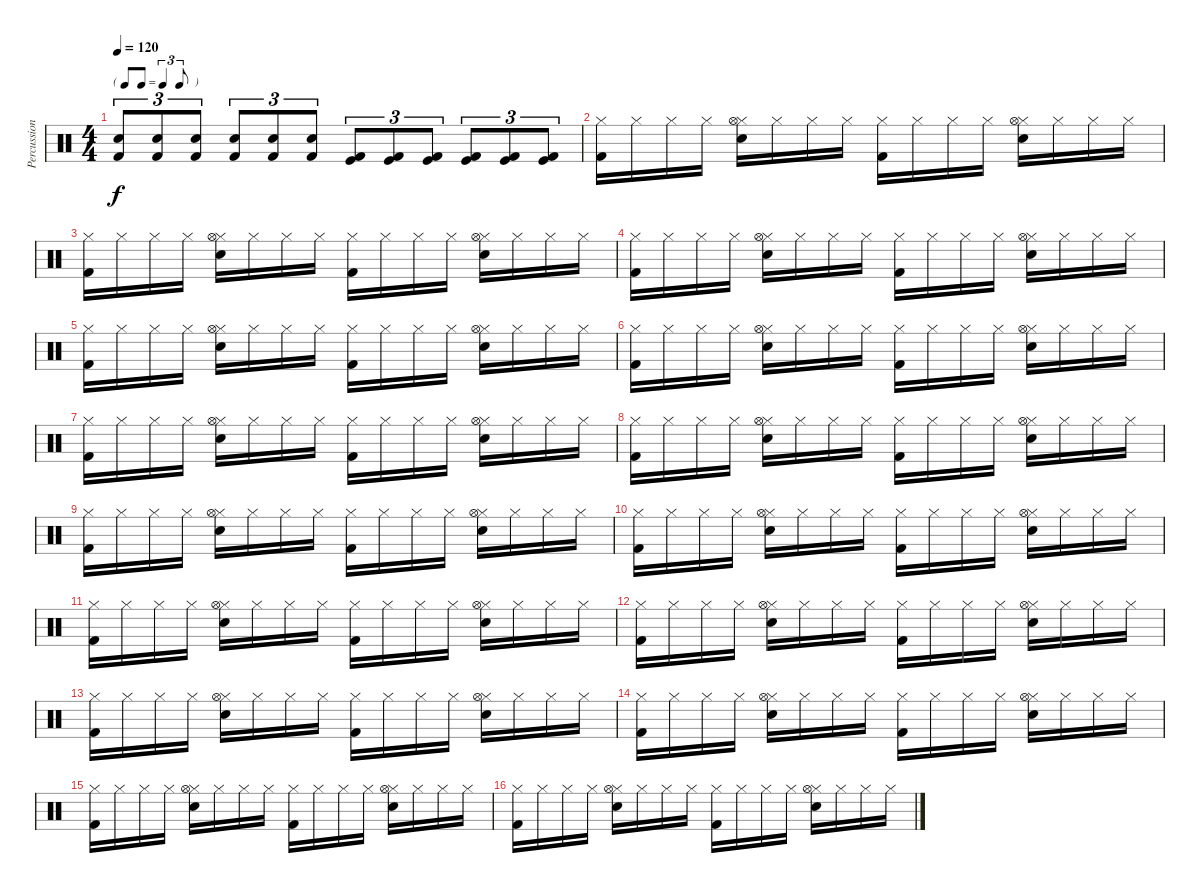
\track ("Percussions" "Percussion") {instrument percussion}
\staff {score}
\articulation defaults
\ts (4 4)
\tf triplet8th
\tempo 120
\clef neutral
\ks c
("Kick (hit) 2" "Electric Snare (hit)").8{tu (3 2) dy f} ("Kick (hit) 2" "Electric Snare (hit)").8{tu (3 2)} ("Kick (hit) 2" "Electric Snare (hit)").8{tu (3 2)} ("Kick (hit) 2" "Electric Snare (hit)").8{tu (3 2)} ("Kick (hit) 2" "Electric Snare (hit)").8{tu (3 2)} ("Kick (hit) 2" "Electric Snare (hit)").8{tu (3 2)} ("Kick (hit)" "Kick (hit) 2").8{tu (3 2)} ("Kick (hit)" "Kick (hit) 2").8{tu (3 2)} ("Kick (hit)" "Kick (hit) 2").8{tu (3 2)} ("Kick (hit)" "Kick (hit) 2").8{tu (3 2)} ("Kick (hit)" "Kick (hit) 2").8{tu (3 2)} ("Kick (hit)" "Kick (hit) 2").8{tu (3 2)} |
("Hi-Hat (closed)" "Kick (hit) 2").16 "Hi-Hat (closed)".16 "Hi-Hat (closed)".16 "Hi-Hat (closed)".16 ("Snare (hit) 2" "Hi-Hat (closed)" "Hi-Hat (open)").16 "Hi-Hat (closed)".16 "Hi-Hat (closed)".16 "Hi-Hat (closed)".16 ("Hi-Hat (closed)" "Kick (hit) 2").16 "Hi-Hat (closed)".16 "Hi-Hat (closed)".16 "Hi-Hat (closed)".16 ("Snare (hit) 2" "Hi-Hat (closed)" "Hi-Hat (open)").16 "Hi-Hat (closed)".16 "Hi-Hat (closed)".16 "Hi-Hat (closed)".16 |
("Hi-Hat (closed)" "Kick (hit) 2").16 "Hi-Hat (closed)".16 "Hi-Hat (closed)".16 "Hi-Hat (closed)".16 ("Snare (hit) 2" "Hi-Hat (closed)" "Hi-Hat (open)").16 "Hi-Hat (closed)".16 "Hi-Hat (closed)".16 "Hi-Hat (closed)".16 ("Hi-Hat (closed)" "Kick (hit) 2").16 "Hi-Hat (closed)".16 "Hi-Hat (closed)".16 "Hi-Hat (closed)".16 ("Snare (hit) 2" "Hi-Hat (closed)" "Hi-Hat (open)").16 "Hi-Hat (closed)".16 "Hi-Hat (closed)".16 "Hi-Hat (closed)".16 |
("Hi-Hat (closed)" "Kick (hit) 2").16 "Hi-Hat (closed)".16 "Hi-Hat (closed)".16 "Hi-Hat (closed)".16 ("Snare (hit) 2" "Hi-Hat (closed)" "Hi-Hat (open)").16 "Hi-Hat (closed)".16 "Hi-Hat (closed)".16 "Hi-Hat (closed)".16 ("Hi-Hat (closed)" "Kick (hit) 2").16 "Hi-Hat (closed)".16 "Hi-Hat (closed)".16 "Hi-Hat (closed)".16 ("Snare (hit) 2" "Hi-Hat (closed)" "Hi-Hat (open)").16 "Hi-Hat (closed)".16 "Hi-Hat (closed)".16 "Hi-Hat (closed)".16 |
("Hi-Hat (closed)" "Kick (hit) 2").16 "Hi-Hat (closed)".16 "Hi-Hat (closed)".16 "Hi-Hat (closed)".16 ("Snare (hit) 2" "Hi-Hat (closed)" "Hi-Hat (open)").16 "Hi-Hat (closed)".16 "Hi-Hat (closed)".16 "Hi-Hat (closed)".16 ("Hi-Hat (closed)" "Kick (hit) 2").16 "Hi-Hat (closed)".16 "Hi-Hat (closed)".16 "Hi-Hat (closed)".16 ("Snare (hit) 2" "Hi-Hat (closed)" "Hi-Hat (open)").16 "Hi-Hat (closed)".16 "Hi-Hat (closed)".16 "Hi-Hat (closed)".16 |
("Hi-Hat (closed)" "Kick (hit) 2").16 "Hi-Hat (closed)".16 "Hi-Hat (closed)".16 "Hi-Hat (closed)".16 ("Snare (hit) 2" "Hi-Hat (closed)" "Hi-Hat (open)").16 "Hi-Hat (closed)".16 "Hi-Hat (closed)".16 "Hi-Hat (closed)".16 ("Hi-Hat (closed)" "Kick (hit) 2").16 "Hi-Hat (closed)".16 "Hi-Hat (closed)".16 "Hi-Hat (closed)".16 ("Snare (hit) 2" "Hi-Hat (closed)" "Hi-Hat (open)").16 "Hi-Hat (closed)".16 "Hi-Hat (closed)".16 "Hi-Hat (closed)".16 |
("Hi-Hat (closed)" "Kick (hit) 2").16 "Hi-Hat (closed)".16 "Hi-Hat (closed)".16 "Hi-Hat (closed)".16 ("Snare (hit) 2" "Hi-Hat (closed)" "Hi-Hat (open)").16 "Hi-Hat (closed)".16 "Hi-Hat (closed)".16 "Hi-Hat (closed)".16 ("Hi-Hat (closed)" "Kick (hit) 2").16 "Hi-Hat (closed)".16 "Hi-Hat (closed)".16 "Hi-Hat (closed)".16 ("Snare (hit) 2" "Hi-Hat (closed)" "Hi-Hat (open)").16 "Hi-Hat (closed)".16 "Hi-Hat (closed)".16 "Hi-Hat (closed)".16 |
("Hi-Hat (closed)" "Kick (hit) 2").16 "Hi-Hat (closed)".16 "Hi-Hat (closed)".16 "Hi-Hat (closed)".16 ("Snare (hit) 2" "Hi-Hat (closed)" "Hi-Hat (open)").16 "Hi-Hat (closed)".16 "Hi-Hat (closed)".16 "Hi-Hat (closed)".16 ("Hi-Hat (closed)" "Kick (hit) 2").16 "Hi-Hat (closed)".16 "Hi-Hat (closed)".16 "Hi-Hat (closed)".16 ("Snare (hit) 2" "Hi-Hat (closed)" "Hi-Hat (open)").16 "Hi-Hat (closed)".16 "Hi-Hat (closed)".16 "Hi-Hat (closed)".16 |
("Hi-Hat (closed)" "Kick (hit) 2").16 "Hi-Hat (closed)".16 "Hi-Hat (closed)".16 "Hi-Hat (closed)".16 ("Snare (hit) 2" "Hi-Hat (closed)" "Hi-Hat (open)").16 "Hi-Hat (closed)".16 "Hi-Hat (closed)".16 "Hi-Hat (closed)".16 ("Hi-Hat (closed)" "Kick (hit) 2").16 "Hi-Hat (closed)".16 "Hi-Hat (closed)".16 "Hi-Hat (closed)".16 ("Snare (hit) 2" "Hi-Hat (closed)" "Hi-Hat (open)").16 "Hi-Hat (closed)".16 "Hi-Hat (closed)".16 "Hi-Hat (closed)".16 |
("Hi-Hat (closed)" "Kick (hit) 2").16 "Hi-Hat (closed)".16 "Hi-Hat (closed)".16 "Hi-Hat (closed)".16 ("Snare (hit) 2" "Hi-Hat (closed)" "Hi-Hat (open)").16 "Hi-Hat (closed)".16 "Hi-Hat (closed)".16 "Hi-Hat (closed)".16 ("Hi-Hat (closed)" "Kick (hit) 2").16 "Hi-Hat (closed)".16 "Hi-Hat (closed)".16 "Hi-Hat (closed)".16 ("Snare (hit) 2" "Hi-Hat (closed)" "Hi-Hat (open)").16 "Hi-Hat (closed)".16 "Hi-Hat (closed)".16 "Hi-Hat (closed)".16 |
("Hi-Hat (closed)" "Kick (hit) 2").16 "Hi-Hat (closed)".16 "Hi-Hat (closed)".16 "Hi-Hat (closed)".16 ("Snare (hit) 2" "Hi-Hat (closed)" "Hi-Hat (open)").16 "Hi-Hat (closed)".16 "Hi-Hat (closed)".16 "Hi-Hat (closed)".16 ("Hi-Hat (closed)" "Kick (hit) 2").16 "Hi-Hat (closed)".16 "Hi-Hat (closed)".16 "Hi-Hat (closed)".16 ("Snare (hit) 2" "Hi-Hat (closed)" "Hi-Hat (open)").16 "Hi-Hat (closed)".16 "Hi-Hat (closed)".16 "Hi-Hat (closed)".16 |
("Hi-Hat (closed)" "Kick (hit) 2").16 "Hi-Hat (closed)".16 "Hi-Hat (closed)".16 "Hi-Hat (closed)".16 ("Snare (hit) 2" "Hi-Hat (closed)" "Hi-Hat (open)").16 "Hi-Hat (closed)".16 "Hi-Hat (closed)".16 "Hi-Hat (closed)".16 ("Hi-Hat (closed)" "Kick (hit) 2").16 "Hi-Hat (closed)".16 "Hi-Hat (closed)".16 "Hi-Hat (closed)".16 ("Snare (hit) 2" "Hi-Hat (closed)" "Hi-Hat (open)").16 "Hi-Hat (closed)".16 "Hi-Hat (closed)".16 "Hi-Hat (closed)".16 |
("Hi-Hat (closed)" "Kick (hit) 2").16 "Hi-Hat (closed)".16 "Hi-Hat (closed)".16 "Hi-Hat (closed)".16 ("Snare (hit) 2" "Hi-Hat (closed)" "Hi-Hat (open)").16 "Hi-Hat (closed)".16 "Hi-Hat (closed)".16 "Hi-Hat (closed)".16 ("Hi-Hat (closed)" "Kick (hit) 2").16 "Hi-Hat (closed)".16 "Hi-Hat (closed)".16 "Hi-Hat (closed)".16 ("Snare (hit) 2" "Hi-Hat (closed)" "Hi-Hat (open)").16 "Hi-Hat (closed)".16 "Hi-Hat (closed)".16 "Hi-Hat (closed)".16 |
("Hi-Hat (closed)" "Kick (hit) 2").16 "Hi-Hat (closed)".16 "Hi-Hat (closed)".16 "Hi-Hat (closed)".16 ("Snare (hit) 2" "Hi-Hat (closed)" "Hi-Hat (open)").16 "Hi-Hat (closed)".16 "Hi-Hat (closed)".16 "Hi-Hat (closed)".16 ("Hi-Hat (closed)" "Kick (hit) 2").16 "Hi-Hat (closed)".16 "Hi-Hat (closed)".16 "Hi-Hat (closed)".16 ("Snare (hit) 2" "Hi-Hat (closed)" "Hi-Hat (open)").16 "Hi-Hat (closed)".16 "Hi-Hat (closed)".16 "Hi-Hat (closed)".16 |
("Hi-Hat (closed)" "Kick (hit) 2").16 "Hi-Hat (closed)".16 "Hi-Hat (closed)".16 "Hi-Hat (closed)".16 ("Snare (hit) 2" "Hi-Hat (closed)" "Hi-Hat (open)").16 "Hi-Hat (closed)".16 "Hi-Hat (closed)".16 "Hi-Hat (closed)".16 ("Hi-Hat (closed)" "Kick (hit) 2").16 "Hi-Hat (closed)".16 "Hi-Hat (closed)".16 "Hi-Hat (closed)".16 ("Snare (hit) 2" "Hi-Hat (closed)" "Hi-Hat (open)").16 "Hi-Hat (closed)".16 "Hi-Hat (closed)".16 "Hi-Hat (closed)".16 |
("Hi-Hat (closed)" "Kick (hit) 2").16 "Hi-Hat (closed)".16 "Hi-Hat (closed)".16 "Hi-Hat (closed)".16 ("Snare (hit) 2" "Hi-Hat (closed)" "Hi-Hat (open)").16 "Hi-Hat (closed)".16 "Hi-Hat (closed)".16 "Hi-Hat (closed)".16 ("Hi-Hat (closed)" "Kick (hit) 2").16 "Hi-Hat (closed)".16 "Hi-Hat (closed)".16 "Hi-Hat (closed)".16 ("Snare (hit) 2" "Hi-Hat (closed)" "Hi-Hat (open)").16 "Hi-Hat (closed)".16 "Hi-Hat (closed)".16 "Hi-Hat (closed)".16
